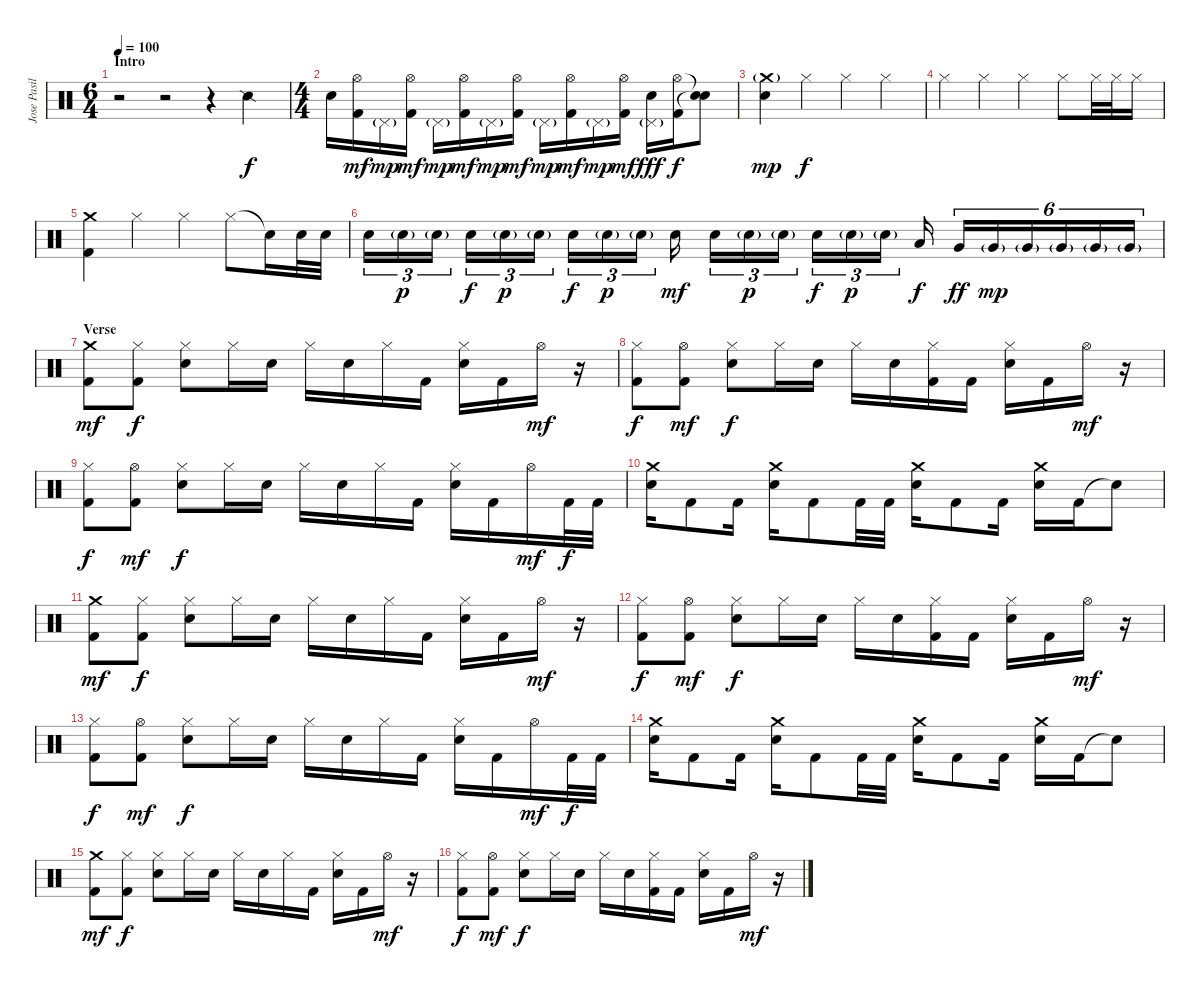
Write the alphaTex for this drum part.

\track ("Jose Pasillas - Drums" "Jose Pasil") {instrument percussion}
\staff {score}
\articulation defaults
\ts (6 4)
\section ("" "Intro")
\tempo 100
\clef neutral
\ks c
r.2{dy f} r.2 r.4 "Snare (side stick) 2".4 |
\ts (4 4)
"Electric Snare (hit)".16 ("Hi-Hat (open)" "Kick (hit) 2").16{dy mf} "Pedal Hi-Hat (hit)"{g}.16{dy mp} ("Hi-Hat (open)" "Kick (hit) 2").16{dy mf} "Pedal Hi-Hat (hit)"{g}.16{dy mp} ("Hi-Hat (open)" "Kick (hit) 2").16{dy mf} "Pedal Hi-Hat (hit)"{g}.16{dy mp} ("Hi-Hat (open)" "Kick (hit) 2").16{dy mf} "Pedal Hi-Hat (hit)"{g}.16{dy mp} ("Hi-Hat (open)" "Kick (hit) 2").16{dy mf} "Pedal Hi-Hat (hit)"{g}.16{dy mp} ("Hi-Hat (open)" "Kick (hit) 2").16{dy mf} ("Pedal Hi-Hat (hit)"{g} "Electric Snare (hit)").16{dy fff} ("Hi-Hat (open)" "Kick (hit) 2").16{dy f} ("Snare (hit)"{t} "Snare (hit)"{t}).8 |
("Crash medium (hit)"{g} "Electric Snare (hit)").4{dy mp} "Hi-Hat (closed)".4{dy f} "Hi-Hat (closed)".4 "Hi-Hat (closed)".4 |
"Hi-Hat (closed)".4 "Hi-Hat (closed)".4 "Hi-Hat (closed)".4 "Hi-Hat (closed)".8 "Hi-Hat (closed)".32 "Hi-Hat (closed)".32 "Hi-Hat (closed)".16 |
("Crash medium (hit)" "Kick (hit) 2").4 "Hi-Hat (closed)".4 "Hi-Hat (closed)".4 "Hi-Hat (closed)".8 "Snare (hit)"{t}.16 "Electric Snare (hit)".32 "Electric Snare (hit)".32 |
"Electric Snare (hit)".16{tu (3 2)} "Electric Snare (hit)"{g}.16{tu (3 2) dy p} "Electric Snare (hit)"{g}.16{tu (3 2)} "Electric Snare (hit)".16{tu (3 2) dy f} "Electric Snare (hit)"{g}.16{tu (3 2) dy p} "Electric Snare (hit)"{g}.16{tu (3 2)} "Electric Snare (hit)".16{tu (3 2) dy f} "Electric Snare (hit)"{g}.16{tu (3 2) dy p} "Electric Snare (hit)"{g}.16{tu (3 2)} "Electric Snare (hit)".16{dy mf} "Electric Snare (hit)".16{tu (3 2)} "Electric Snare (hit)"{g}.16{tu (3 2) dy p} "Electric Snare (hit)"{g}.16{tu (3 2)} "Electric Snare (hit)".16{tu (3 2) dy f} "Electric Snare (hit)"{g}.16{tu (3 2) dy p} "Electric Snare (hit)"{g}.16{tu (3 2)} "Low Tom (hit)".16{dy f} "Very Low Tom (hit)".16{tu (6 4) dy ff} "Very Low Tom (hit)"{g}.16{tu (6 4) dy mp} "Very Low Tom (hit)"{g}.16{tu (6 4)} "Very Low Tom (hit)"{g}.16{tu (6 4)} "Very Low Tom (hit)"{g}.16{tu (6 4)} "Very Low Tom (hit)"{g}.16{tu (6 4)} |
\section ("" "Verse")
("Crash medium (hit)" "Kick (hit) 2").8{dy mf} ("Hi-Hat (closed)" "Kick (hit) 2").8{dy f} ("Hi-Hat (closed)" "Electric Snare (hit)").8 "Hi-Hat (closed)".16 "Electric Snare (hit)".16 "Hi-Hat (closed)".16 "Electric Snare (hit)".16 "Hi-Hat (closed)".16 "Kick (hit) 2".16 ("Hi-Hat (closed)" "Electric Snare (hit)").16 "Kick (hit) 2".16 "Hi-Hat (open)".16{dy mf} r.16 |
("Hi-Hat (closed)" "Kick (hit) 2").8{dy f} ("Hi-Hat (open)" "Kick (hit) 2").8{dy mf} ("Hi-Hat (closed)" "Electric Snare (hit)").8{dy f} "Hi-Hat (closed)".16 "Electric Snare (hit)".16 "Hi-Hat (closed)".16 "Electric Snare (hit)".16 ("Hi-Hat (closed)" "Kick (hit) 2").16 "Kick (hit) 2".16 ("Hi-Hat (closed)" "Electric Snare (hit)").16 "Kick (hit) 2".16 "Hi-Hat (open)".16{dy mf} r.16 |
("Hi-Hat (closed)" "Kick (hit) 2").8{dy f} ("Hi-Hat (open)" "Kick (hit) 2").8{dy mf} ("Hi-Hat (closed)" "Electric Snare (hit)").8{dy f} "Hi-Hat (closed)".16 "Electric Snare (hit)".16 "Hi-Hat (closed)".16 "Electric Snare (hit)".16 "Hi-Hat (closed)".16 "Kick (hit) 2".16 ("Hi-Hat (closed)" "Electric Snare (hit)").16 "Kick (hit) 2".16 "Hi-Hat (open)".16{dy mf} "Kick (hit) 2".32{dy f} "Kick (hit) 2".32 |
("Crash medium (hit)" "Electric Snare (hit)").16 "Kick (hit) 2".8 "Kick (hit) 2".16 ("Crash medium (hit)" "Electric Snare (hit)").16 "Kick (hit) 2".8 "Kick (hit) 2".32 "Kick (hit) 2".32 ("Crash medium (hit)" "Electric Snare (hit)").16 "Kick (hit) 2".8 "Kick (hit) 2".16 ("Crash medium (hit)" "Electric Snare (hit)").16 "Kick (hit) 2".16 "Snare (hit)"{t}.8 |
("Crash medium (hit)" "Kick (hit) 2").8{dy mf} ("Hi-Hat (closed)" "Kick (hit) 2").8{dy f} ("Hi-Hat (closed)" "Electric Snare (hit)").8 "Hi-Hat (closed)".16 "Electric Snare (hit)".16 "Hi-Hat (closed)".16 "Electric Snare (hit)".16 "Hi-Hat (closed)".16 "Kick (hit) 2".16 ("Hi-Hat (closed)" "Electric Snare (hit)").16 "Kick (hit) 2".16 "Hi-Hat (open)".16{dy mf} r.16 |
("Hi-Hat (closed)" "Kick (hit) 2").8{dy f} ("Hi-Hat (open)" "Kick (hit) 2").8{dy mf} ("Hi-Hat (closed)" "Electric Snare (hit)").8{dy f} "Hi-Hat (closed)".16 "Electric Snare (hit)".16 "Hi-Hat (closed)".16 "Electric Snare (hit)".16 ("Hi-Hat (closed)" "Kick (hit) 2").16 "Kick (hit) 2".16 ("Hi-Hat (closed)" "Electric Snare (hit)").16 "Kick (hit) 2".16 "Hi-Hat (open)".16{dy mf} r.16 |
("Hi-Hat (closed)" "Kick (hit) 2").8{dy f} ("Hi-Hat (open)" "Kick (hit) 2").8{dy mf} ("Hi-Hat (closed)" "Electric Snare (hit)").8{dy f} "Hi-Hat (closed)".16 "Electric Snare (hit)".16 "Hi-Hat (closed)".16 "Electric Snare (hit)".16 "Hi-Hat (closed)".16 "Kick (hit) 2".16 ("Hi-Hat (closed)" "Electric Snare (hit)").16 "Kick (hit) 2".16 "Hi-Hat (open)".16{dy mf} "Kick (hit) 2".32{dy f} "Kick (hit) 2".32 |
("Crash medium (hit)" "Electric Snare (hit)").16 "Kick (hit) 2".8 "Kick (hit) 2".16 ("Crash medium (hit)" "Electric Snare (hit)").16 "Kick (hit) 2".8 "Kick (hit) 2".32 "Kick (hit) 2".32 ("Crash medium (hit)" "Electric Snare (hit)").16 "Kick (hit) 2".8 "Kick (hit) 2".16 ("Crash medium (hit)" "Electric Snare (hit)").16 "Kick (hit) 2".16 "Snare (hit)"{t}.8 |
("Crash medium (hit)" "Kick (hit) 2").8{dy mf} ("Hi-Hat (closed)" "Kick (hit) 2").8{dy f} ("Hi-Hat (closed)" "Electric Snare (hit)").8 "Hi-Hat (closed)".16 "Electric Snare (hit)".16 "Hi-Hat (closed)".16 "Electric Snare (hit)".16 "Hi-Hat (closed)".16 "Kick (hit) 2".16 ("Hi-Hat (closed)" "Electric Snare (hit)").16 "Kick (hit) 2".16 "Hi-Hat (open)".16{dy mf} r.16 |
("Hi-Hat (closed)" "Kick (hit) 2").8{dy f} ("Hi-Hat (open)" "Kick (hit) 2").8{dy mf} ("Hi-Hat (closed)" "Electric Snare (hit)").8{dy f} "Hi-Hat (closed)".16 "Electric Snare (hit)".16 "Hi-Hat (closed)".16 "Electric Snare (hit)".16 ("Hi-Hat (closed)" "Kick (hit) 2").16 "Kick (hit) 2".16 ("Hi-Hat (closed)" "Electric Snare (hit)").16 "Kick (hit) 2".16 "Hi-Hat (open)".16{dy mf} r.16
